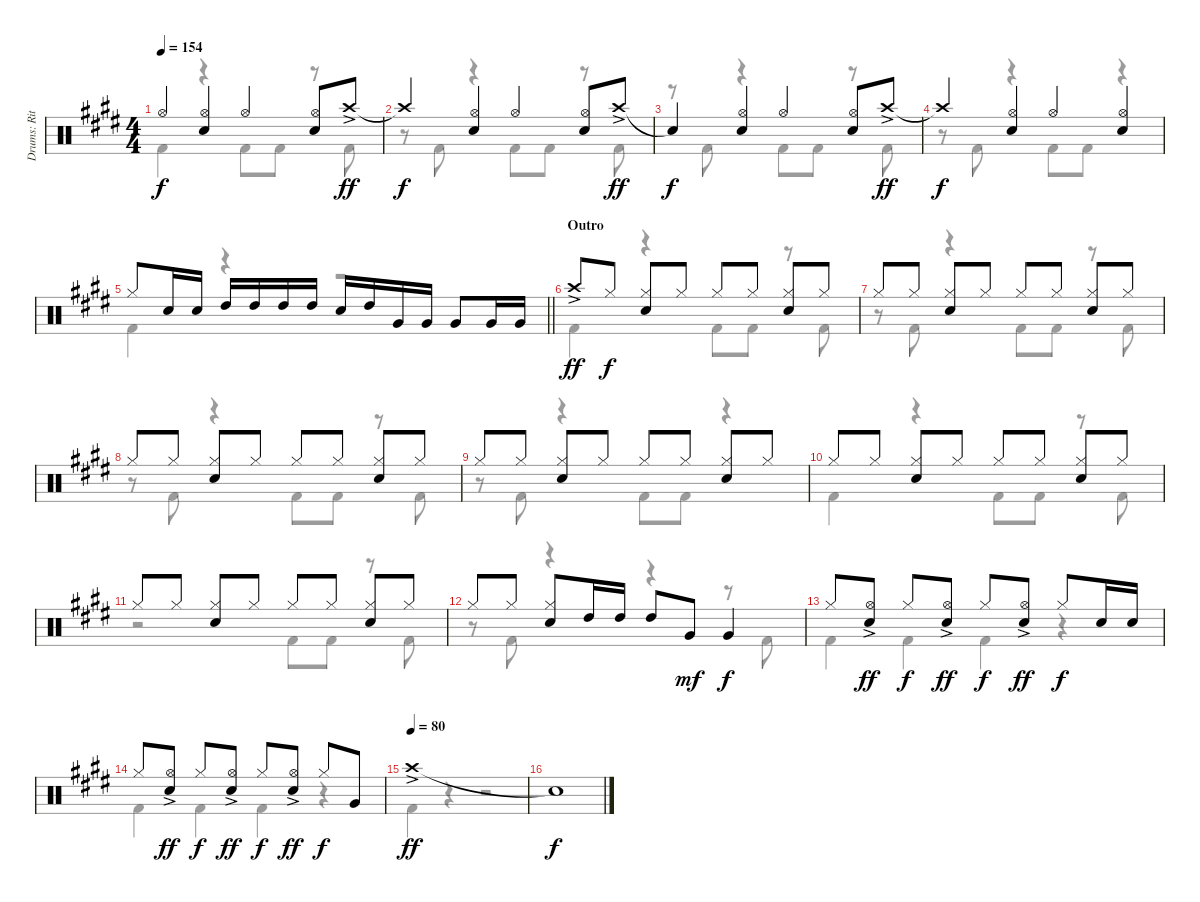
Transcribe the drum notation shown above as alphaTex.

\track ("Drums: Ritsu Tainaka" "Drums: Rit") {instrument percussion}
\staff {score}
\articulation defaults
\voice
\ts (4 4)
\tempo 154
\clef neutral
\ks e "Hi-Hat (open)".4{dy f}
("Hi-Hat (open)" "Electric Snare (hit)").4 "Hi-Hat (open)".4 ("Hi-Hat (open)" "Electric Snare (hit)").8 "Crash high (hit)"{ac}.8{dy ff} |
"Crash high (hit)"{t}.4{dy f} ("Hi-Hat (open)" "Electric Snare (hit)").4 "Hi-Hat (open)".4 ("Hi-Hat (open)" "Electric Snare (hit)").8 "Crash high (hit)"{ac}.8{dy ff} |
"Snare (hit)"{t}.4{dy f} ("Hi-Hat (open)" "Electric Snare (hit)").4 "Hi-Hat (open)".4 ("Hi-Hat (open)" "Electric Snare (hit)").8 "Crash high (hit)"{ac}.8{dy ff} |
"Crash high (hit)"{t}.4{dy f} ("Hi-Hat (open)" "Electric Snare (hit)").4 "Hi-Hat (open)".4 ("Hi-Hat (open)" "Electric Snare (hit)").4 |
\barLineRight lightlight "Hi-Hat (closed)".8 "Electric Snare (hit)".16 "Electric Snare (hit)".16 "High Tom (hit)".16 "High Tom (hit)".16 "High Tom (hit)".16 "High Tom (hit)".16 "Electric Snare (hit)".16 "High Tom (hit)".16 "Very Low Tom (hit)".16 "Very Low Tom (hit)".16 "Very Low Tom (hit)".8 "Very Low Tom (hit)".16 "Very Low Tom (hit)".16
|
\section ("" "Outro")
"Crash high (hit)"{ac}.8{dy ff} "Hi-Hat (closed)".8{dy f} ("Hi-Hat (closed)" "Electric Snare (hit)").8 "Hi-Hat (closed)".8 "Hi-Hat (closed)".8 "Hi-Hat (closed)".8 ("Hi-Hat (closed)" "Electric Snare (hit)").8 "Hi-Hat (closed)".8 |
"Hi-Hat (closed)".8 "Hi-Hat (closed)".8 ("Hi-Hat (closed)" "Electric Snare (hit)").8 "Hi-Hat (closed)".8 "Hi-Hat (closed)".8 "Hi-Hat (closed)".8 ("Hi-Hat (closed)" "Electric Snare (hit)").8 "Hi-Hat (closed)".8 |
"Hi-Hat (closed)".8 "Hi-Hat (closed)".8 ("Hi-Hat (closed)" "Electric Snare (hit)").8 "Hi-Hat (closed)".8 "Hi-Hat (closed)".8 "Hi-Hat (closed)".8 ("Hi-Hat (closed)" "Electric Snare (hit)").8 "Hi-Hat (closed)".8 |
"Hi-Hat (closed)".8 "Hi-Hat (closed)".8 ("Hi-Hat (closed)" "Electric Snare (hit)").8 "Hi-Hat (closed)".8 "Hi-Hat (closed)".8 "Hi-Hat (closed)".8 ("Hi-Hat (closed)" "Electric Snare (hit)").8 "Hi-Hat (closed)".8 |
"Hi-Hat (closed)".8 "Hi-Hat (closed)".8 ("Hi-Hat (closed)" "Electric Snare (hit)").8 "Hi-Hat (closed)".8 "Hi-Hat (closed)".8 "Hi-Hat (closed)".8 ("Hi-Hat (closed)" "Electric Snare (hit)").8 "Hi-Hat (closed)".8 |
"Hi-Hat (closed)".8 "Hi-Hat (closed)".8 ("Hi-Hat (closed)" "Electric Snare (hit)").8 "Hi-Hat (closed)".8 "Hi-Hat (closed)".8 "Hi-Hat (closed)".8 ("Hi-Hat (closed)" "Electric Snare (hit)").8 "Hi-Hat (closed)".8 |
"Hi-Hat (closed)".8 "Hi-Hat (closed)".8 ("Hi-Hat (closed)" "Electric Snare (hit)").8 "High Tom (hit)".16 "High Tom (hit)".16 "High Tom (hit)".8 "Very Low Tom (hit)".8{dy mf} "Very Low Tom (hit)".4{dy f} |
"Hi-Hat (closed)".8 ("Hi-Hat (open)"{ac} "Electric Snare (hit)").8{dy ff} "Hi-Hat (closed)".8{dy f} ("Hi-Hat (open)"{ac} "Electric Snare (hit)").8{dy ff} "Hi-Hat (closed)".8{dy f} ("Hi-Hat (open)"{ac} "Electric Snare (hit)").8{dy ff} "Hi-Hat (closed)".8{dy f} "Electric Snare (hit)".16 "Electric Snare (hit)".16 |
"Hi-Hat (closed)".8 ("Hi-Hat (open)"{ac} "Electric Snare (hit)").8{dy ff} "Hi-Hat (closed)".8{dy f} ("Hi-Hat (open)"{ac} "Electric Snare (hit)").8{dy ff} "Hi-Hat (closed)".8{dy f} ("Hi-Hat (open)"{ac} "Electric Snare (hit)").8{dy ff} "Hi-Hat (closed)".8{dy f} "Very Low Tom (hit)".8 |
\tempo (80)
"Crash high (hit)"{ac}.1{dy ff} |
"Snare (hit)"{t}.1{dy f}
\voice
\clef neutral
\ottava regular
\simile none
\ks e "Kick (hit) 2".4{dy f}
r.4 "Kick (hit) 2".8 "Kick (hit) 2".8 r.8 "Kick (hit) 2".8 |
r.8 "Kick (hit) 2".8 r.4 "Kick (hit) 2".8 "Kick (hit) 2".8 r.8 "Kick (hit) 2".8 |
r.8 "Kick (hit) 2".8 r.4 "Kick (hit) 2".8 "Kick (hit) 2".8 r.8 "Kick (hit) 2".8 |
r.8 "Kick (hit) 2".8 r.4 "Kick (hit) 2".8 "Kick (hit) 2".8 r.4 |
\barLineRight lightlight "Kick (hit) 2".4
r.4 r.2 |
"Kick (hit) 2".4 r.4 "Kick (hit) 2".8 "Kick (hit) 2".8 r.8 "Kick (hit) 2".8 |
r.8 "Kick (hit) 2".8 r.4 "Kick (hit) 2".8 "Kick (hit) 2".8 r.8 "Kick (hit) 2".8 |
r.8 "Kick (hit) 2".8 r.4 "Kick (hit) 2".8 "Kick (hit) 2".8 r.8 "Kick (hit) 2".8 |
r.8 "Kick (hit) 2".8 r.4 "Kick (hit) 2".8 "Kick (hit) 2".8 r.4 |
"Kick (hit) 2".4 r.4 "Kick (hit) 2".8 "Kick (hit) 2".8 r.8 "Kick (hit) 2".8 |
r.2 "Kick (hit) 2".8 "Kick (hit) 2".8 r.8 "Kick (hit) 2".8 |
r.8 "Kick (hit) 2".8 r.4 r.4 r.8 "Kick (hit) 2".8 |
"Kick (hit) 2".4 "Kick (hit) 2".4 "Kick (hit) 2".4 r.4 |
"Kick (hit) 2".4 "Kick (hit) 2".4 "Kick (hit) 2".4 r.4 |
"Kick (hit) 2".4 r.4 r.2 |
